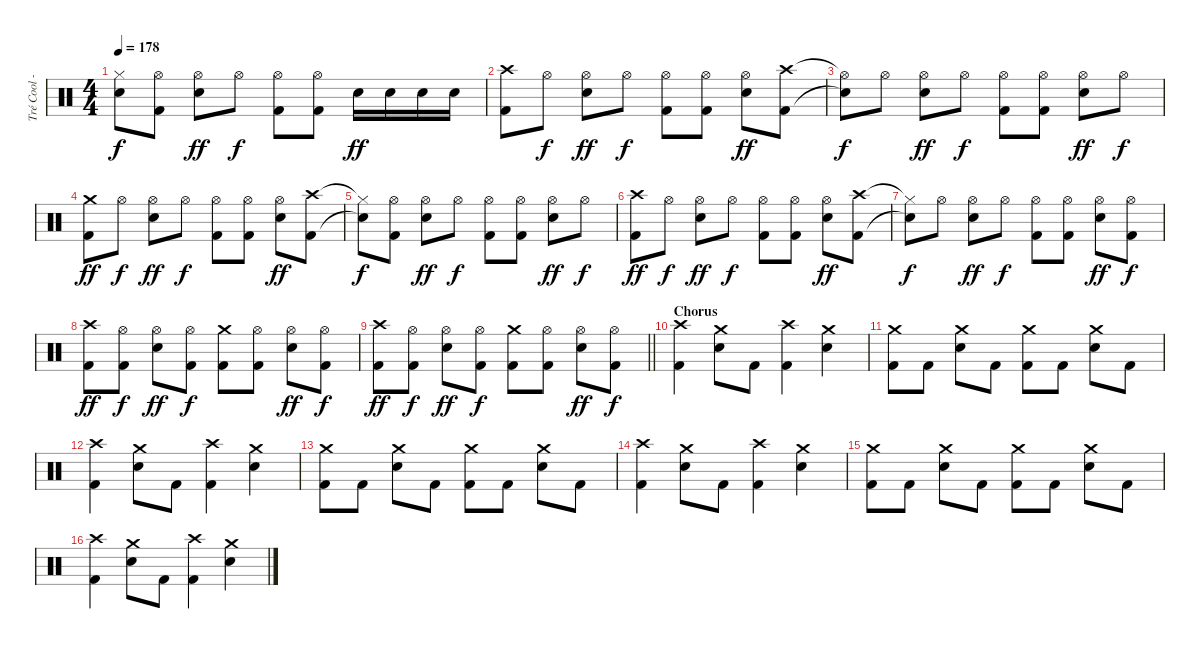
\track ("Tré Cool - Drums" "Tré Cool -") {instrument percussion}
\staff {score}
\articulation defaults
\ts (4 4)
\tempo 178
\clef neutral
\ks c
("Hi-Hat (closed)"{t} "Snare (hit)"{t}).8{dy f} ("Hi-Hat (open)" "Kick (hit) 2").8 ("Hi-Hat (open)" "Electric Snare (hit)").8{dy ff} "Hi-Hat (open)".8{dy f} ("Hi-Hat (open)" "Kick (hit) 2").8 ("Hi-Hat (open)" "Kick (hit) 2").8 "Electric Snare (hit)".16{dy ff} "Electric Snare (hit)".16 "Electric Snare (hit)".16 "Electric Snare (hit)".16 |
("Crash high (hit)" "Kick (hit) 2").8 "Hi-Hat (open)".8{dy f} ("Hi-Hat (open)" "Electric Snare (hit)").8{dy ff} "Hi-Hat (open)".8{dy f} ("Hi-Hat (open)" "Kick (hit) 2").8 ("Hi-Hat (open)" "Kick (hit) 2").8 ("Hi-Hat (open)" "Electric Snare (hit)").8{dy ff} ("Crash high (hit)" "Kick (hit) 2").8 |
("Hi-Hat (open)"{t} "Snare (hit)"{t}).8{dy f} "Hi-Hat (open)".8 ("Hi-Hat (open)" "Electric Snare (hit)").8{dy ff} "Hi-Hat (open)".8{dy f} ("Hi-Hat (open)" "Kick (hit) 2").8 ("Hi-Hat (open)" "Kick (hit) 2").8 ("Hi-Hat (open)" "Electric Snare (hit)").8{dy ff} "Hi-Hat (open)".8{dy f} |
("Crash medium (hit)" "Kick (hit) 2").8{dy ff} "Hi-Hat (open)".8{dy f} ("Hi-Hat (open)" "Electric Snare (hit)").8{dy ff} "Hi-Hat (open)".8{dy f} ("Hi-Hat (open)" "Kick (hit) 2").8 ("Hi-Hat (open)" "Kick (hit) 2").8 ("Hi-Hat (open)" "Electric Snare (hit)").8{dy ff} ("Crash high (hit)" "Kick (hit) 2").8 |
("Hi-Hat (closed)"{t} "Snare (hit)"{t}).8{dy f} ("Hi-Hat (open)" "Kick (hit) 2").8 ("Hi-Hat (open)" "Electric Snare (hit)").8{dy ff} "Hi-Hat (open)".8{dy f} ("Hi-Hat (open)" "Kick (hit) 2").8 ("Hi-Hat (open)" "Kick (hit) 2").8 ("Hi-Hat (open)" "Electric Snare (hit)").8{dy ff} "Hi-Hat (open)".8{dy f} |
("Crash high (hit)" "Kick (hit) 2").8{dy ff} "Hi-Hat (open)".8{dy f} ("Hi-Hat (open)" "Electric Snare (hit)").8{dy ff} "Hi-Hat (open)".8{dy f} ("Hi-Hat (open)" "Kick (hit) 2").8 ("Hi-Hat (open)" "Kick (hit) 2").8 ("Hi-Hat (open)" "Electric Snare (hit)").8{dy ff} ("Crash high (hit)" "Kick (hit) 2").8 |
("Hi-Hat (closed)"{t} "Snare (hit)"{t}).8{dy f} "Hi-Hat (open)".8 ("Hi-Hat (open)" "Electric Snare (hit)").8{dy ff} "Hi-Hat (open)".8{dy f} ("Hi-Hat (open)" "Kick (hit) 2").8 ("Hi-Hat (open)" "Kick (hit) 2").8 ("Hi-Hat (open)" "Electric Snare (hit)").8{dy ff} ("Hi-Hat (open)" "Kick (hit) 2").8{dy f} |
("Crash high (hit)" "Kick (hit) 2").8{dy ff} ("Hi-Hat (open)" "Kick (hit) 2").8{dy f} ("Hi-Hat (open)" "Electric Snare (hit)").8{dy ff} ("Hi-Hat (open)" "Kick (hit) 2").8{dy f} ("Crash medium (hit)" "Kick (hit) 2").8 ("Hi-Hat (open)" "Kick (hit) 2").8 ("Hi-Hat (open)" "Electric Snare (hit)").8{dy ff} ("Hi-Hat (open)" "Kick (hit) 2").8{dy f} |
\barLineRight lightlight
("Crash high (hit)" "Kick (hit) 2").8{dy ff} ("Hi-Hat (open)" "Kick (hit) 2").8{dy f} ("Hi-Hat (open)" "Electric Snare (hit)").8{dy ff} ("Hi-Hat (open)" "Kick (hit) 2").8{dy f} ("Crash medium (hit)" "Kick (hit) 2").8 ("Hi-Hat (open)" "Kick (hit) 2").8 ("Hi-Hat (open)" "Electric Snare (hit)").8{dy ff} ("Hi-Hat (open)" "Kick (hit) 2").8{dy f} |
\section ("" "Chorus")
("Crash high (hit)" "Kick (hit) 2").4 ("Crash medium (hit)" "Electric Snare (hit)").8 "Kick (hit) 2".8 ("Crash high (hit)" "Kick (hit) 2").4 ("Crash medium (hit)" "Electric Snare (hit)").4 |
("Crash medium (hit)" "Kick (hit) 2").8 "Kick (hit) 2".8 ("Crash medium (hit)" "Electric Snare (hit)").8 "Kick (hit) 2".8 ("Crash medium (hit)" "Kick (hit) 2").8 "Kick (hit) 2".8 ("Crash medium (hit)" "Electric Snare (hit)").8 "Kick (hit) 2".8 |
("Crash high (hit)" "Kick (hit) 2").4 ("Crash medium (hit)" "Electric Snare (hit)").8 "Kick (hit) 2".8 ("Crash high (hit)" "Kick (hit) 2").4 ("Crash medium (hit)" "Electric Snare (hit)").4 |
("Crash medium (hit)" "Kick (hit) 2").8 "Kick (hit) 2".8 ("Crash medium (hit)" "Electric Snare (hit)").8 "Kick (hit) 2".8 ("Crash medium (hit)" "Kick (hit) 2").8 "Kick (hit) 2".8 ("Crash medium (hit)" "Electric Snare (hit)").8 "Kick (hit) 2".8 |
("Crash high (hit)" "Kick (hit) 2").4 ("Crash medium (hit)" "Electric Snare (hit)").8 "Kick (hit) 2".8 ("Crash high (hit)" "Kick (hit) 2").4 ("Crash medium (hit)" "Electric Snare (hit)").4 |
("Crash medium (hit)" "Kick (hit) 2").8 "Kick (hit) 2".8 ("Crash medium (hit)" "Electric Snare (hit)").8 "Kick (hit) 2".8 ("Crash medium (hit)" "Kick (hit) 2").8 "Kick (hit) 2".8 ("Crash medium (hit)" "Electric Snare (hit)").8 "Kick (hit) 2".8 |
("Crash high (hit)" "Kick (hit) 2").4 ("Crash medium (hit)" "Electric Snare (hit)").8 "Kick (hit) 2".8 ("Crash high (hit)" "Kick (hit) 2").4 ("Crash medium (hit)" "Electric Snare (hit)").4
